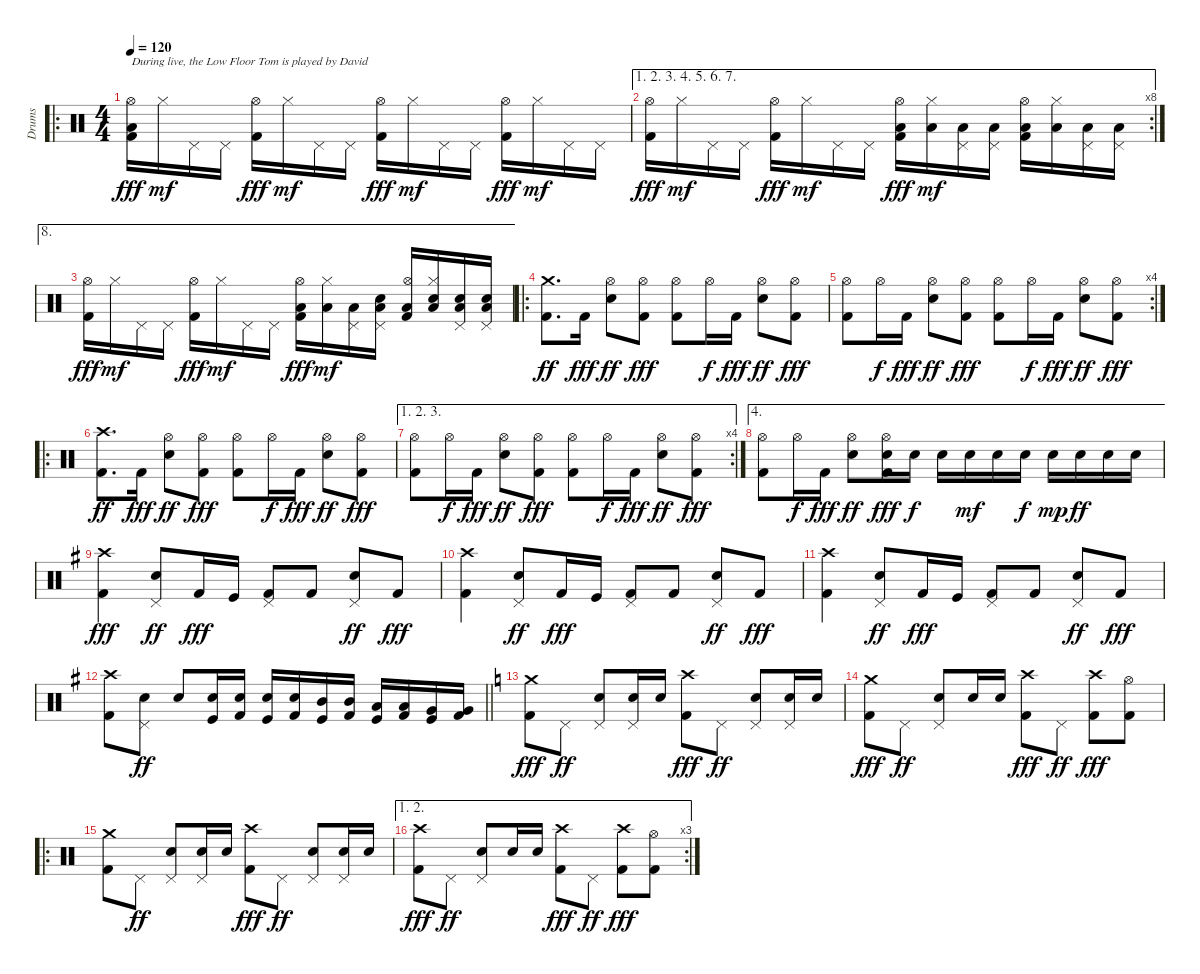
\track ("Drums" "Drums") {instrument percussion}
\staff {score}
\articulation defaults
\ro
\ts (4 4)
\tempo 120
\clef neutral
\ks c
("Low Floor Tom (hit)" "Hi-Hat (open)" "Kick (hit) 2").16{txt "During live, the Low Floor Tom is played by David " dy fff} "Hi-Hat (closed)".16{dy mf} "Pedal Hi-Hat (hit)".16 "Pedal Hi-Hat (hit)".16 ("Hi-Hat (open)" "Kick (hit) 2").16{dy fff} "Hi-Hat (closed)".16{dy mf} "Pedal Hi-Hat (hit)".16 "Pedal Hi-Hat (hit)".16 ("Hi-Hat (open)" "Kick (hit) 2").16{dy fff} "Hi-Hat (closed)".16{dy mf} "Pedal Hi-Hat (hit)".16 "Pedal Hi-Hat (hit)".16 ("Hi-Hat (open)" "Kick (hit) 2").16{dy fff} "Hi-Hat (closed)".16{dy mf} "Pedal Hi-Hat (hit)".16 "Pedal Hi-Hat (hit)".16 |
\ae (1 2 3 4 5 6 7)
\rc 8
("Hi-Hat (open)" "Kick (hit) 2").16{dy fff} "Hi-Hat (closed)".16{dy mf} "Pedal Hi-Hat (hit)".16 "Pedal Hi-Hat (hit)".16 ("Hi-Hat (open)" "Kick (hit) 2").16{dy fff} "Hi-Hat (closed)".16{dy mf} "Pedal Hi-Hat (hit)".16 "Pedal Hi-Hat (hit)".16 ("Low Floor Tom (hit)" "Hi-Hat (open)" "Kick (hit) 2").16{dy fff} ("Low Floor Tom (hit)" "Hi-Hat (closed)").16{dy mf} ("Low Floor Tom (hit)" "Pedal Hi-Hat (hit)").16 ("Low Floor Tom (hit)" "Pedal Hi-Hat (hit)").16 ("Low Floor Tom (hit)" "Hi-Hat (open)" "Kick (hit) 2").16 ("Low Floor Tom (hit)" "Hi-Hat (closed)").16 ("Low Floor Tom (hit)" "Pedal Hi-Hat (hit)").16 ("Low Floor Tom (hit)" "Pedal Hi-Hat (hit)").16 |
\ae 8
("Hi-Hat (open)" "Kick (hit) 2").16{dy fff} "Hi-Hat (closed)".16{dy mf} "Pedal Hi-Hat (hit)".16 "Pedal Hi-Hat (hit)".16 ("Hi-Hat (open)" "Kick (hit) 2").16{dy fff} "Hi-Hat (closed)".16{dy mf} "Pedal Hi-Hat (hit)".16 "Pedal Hi-Hat (hit)".16 ("Low Floor Tom (hit)" "Hi-Hat (open)" "Kick (hit) 2").16{dy fff} ("Low Floor Tom (hit)" "Hi-Hat (closed)").16{dy mf} ("Low Floor Tom (hit)" "Pedal Hi-Hat (hit)").16 ("Low Floor Tom (hit)" "Pedal Hi-Hat (hit)" "Snare (hit) 2").16 ("Low Floor Tom (hit)" "Hi-Hat (open)" "Kick (hit) 2").16 ("Low Floor Tom (hit)" "Hi-Hat (closed)" "Snare (hit) 2").16 ("Low Floor Tom (hit)" "Pedal Hi-Hat (hit)" "Snare (hit) 2").16 ("Low Floor Tom (hit)" "Pedal Hi-Hat (hit)" "Snare (hit) 2").16 |
\ro
("Crash medium (hit)" "Kick (hit) 2").8{d dy ff} "Kick (hit) 2".16{dy fff} ("Hi-Hat (open)" "Snare (hit) 2").8{dy ff} ("Hi-Hat (open)" "Kick (hit) 2").8{dy fff} ("Hi-Hat (open)" "Kick (hit) 2").8 "Hi-Hat (open)".16{dy f} "Kick (hit) 2".16{dy fff} ("Hi-Hat (open)" "Snare (hit) 2").8{dy ff} ("Hi-Hat (open)" "Kick (hit) 2").8{dy fff} |
\rc 4
("Hi-Hat (open)" "Kick (hit) 2").8 "Hi-Hat (open)".16{dy f} "Kick (hit) 2".16{dy fff} ("Hi-Hat (open)" "Snare (hit) 2").8{dy ff} ("Hi-Hat (open)" "Kick (hit) 2").8{dy fff} ("Hi-Hat (open)" "Kick (hit) 2").8 "Hi-Hat (open)".16{dy f} "Kick (hit) 2".16{dy fff} ("Hi-Hat (open)" "Snare (hit) 2").8{dy ff} ("Hi-Hat (open)" "Kick (hit) 2").8{dy fff} |
\ro
("Crash high (hit)" "Kick (hit) 2").8{d dy ff} "Kick (hit) 2".16{dy fff} ("Hi-Hat (open)" "Snare (hit) 2").8{dy ff} ("Hi-Hat (open)" "Kick (hit) 2").8{dy fff} ("Hi-Hat (open)" "Kick (hit) 2").8 "Hi-Hat (open)".16{dy f} "Kick (hit) 2".16{dy fff} ("Hi-Hat (open)" "Snare (hit) 2").8{dy ff} ("Hi-Hat (open)" "Kick (hit) 2").8{dy fff} |
\ae (1 2 3)
\rc 4
("Hi-Hat (open)" "Kick (hit) 2").8 "Hi-Hat (open)".16{dy f} "Kick (hit) 2".16{dy fff} ("Hi-Hat (open)" "Snare (hit) 2").8{dy ff} ("Hi-Hat (open)" "Kick (hit) 2").8{dy fff} ("Hi-Hat (open)" "Kick (hit) 2").8 "Hi-Hat (open)".16{dy f} "Kick (hit) 2".16{dy fff} ("Hi-Hat (open)" "Snare (hit) 2").8{dy ff} ("Hi-Hat (open)" "Kick (hit) 2").8{dy fff} |
\ae 4
("Hi-Hat (open)" "Kick (hit) 2").8 "Hi-Hat (open)".16{dy f} "Kick (hit) 2".16{dy fff} ("Hi-Hat (open)" "Snare (hit) 2").8{dy ff} ("Hi-Hat (open)" "Snare (hit) 2" "Kick (hit) 2").16{dy fff} "Snare (hit) 2".16{dy f} "Snare (hit) 2".16 "Snare (hit) 2".16{dy mf} "Snare (hit) 2".16 "Snare (hit) 2".16{dy f} "Snare (hit) 2".16{dy mp} "Snare (hit) 2".16{dy ff} "Snare (hit) 2".16 "Snare (hit) 2".16 |
\ks g
("Crash high (hit)" "Kick (hit) 2").4{dy fff} ("Pedal Hi-Hat (hit)" "Snare (hit) 2").8{dy ff} "Kick (hit) 2".16{dy fff} "Kick (hit)".16 ("Pedal Hi-Hat (hit)" "Kick (hit) 2").8 "Kick (hit) 2".8 ("Pedal Hi-Hat (hit)" "Snare (hit) 2").8{dy ff} "Kick (hit) 2".8{dy fff} |
("Crash high (hit)" "Kick (hit) 2").4 ("Pedal Hi-Hat (hit)" "Snare (hit) 2").8{dy ff} "Kick (hit) 2".16{dy fff} "Kick (hit)".16 ("Pedal Hi-Hat (hit)" "Kick (hit) 2").8 "Kick (hit) 2".8 ("Pedal Hi-Hat (hit)" "Snare (hit) 2").8{dy ff} "Kick (hit) 2".8{dy fff} |
("Crash high (hit)" "Kick (hit) 2").4 ("Pedal Hi-Hat (hit)" "Snare (hit) 2").8{dy ff} "Kick (hit) 2".16{dy fff} "Kick (hit)".16 ("Pedal Hi-Hat (hit)" "Kick (hit) 2").8 "Kick (hit) 2".8 ("Pedal Hi-Hat (hit)" "Snare (hit) 2").8{dy ff} "Kick (hit) 2".8{dy fff} |
\barLineRight lightlight
("Crash high (hit)" "Kick (hit) 2").8 ("Pedal Hi-Hat (hit)" "Snare (hit) 2").8{dy ff} "Snare (hit) 2".8 ("Snare (hit) 2" "Kick (hit)").16 ("Snare (hit) 2" "Kick (hit) 2").16 ("Snare (hit) 2" "Kick (hit)").16 ("Snare (hit) 2" "Kick (hit) 2").16 ("Mid Tom (hit)" "Kick (hit)").16 ("Mid Tom (hit)" "Kick (hit) 2").16 ("Low Tom (hit)" "Kick (hit)").16 ("Low Tom (hit)" "Kick (hit) 2").16 ("Very Low Tom (hit)" "Kick (hit)").16 ("Very Low Tom (hit)" "Kick (hit) 2").16 |
\ks c
("Crash medium (hit)" "Kick (hit) 2").8{dy fff} "Pedal Hi-Hat (hit)".8{dy ff} ("Pedal Hi-Hat (hit)" "Snare (hit) 2").8 ("Pedal Hi-Hat (hit)" "Snare (hit) 2").16 "Snare (hit) 2".16 ("Crash high (hit)" "Kick (hit) 2").8{dy fff} "Pedal Hi-Hat (hit)".8{dy ff} ("Pedal Hi-Hat (hit)" "Snare (hit) 2").8 ("Pedal Hi-Hat (hit)" "Snare (hit) 2").16 "Snare (hit) 2".16 |
("Crash medium (hit)" "Kick (hit) 2").8{dy fff} "Pedal Hi-Hat (hit)".8{dy ff} ("Pedal Hi-Hat (hit)" "Snare (hit) 2").8 "Snare (hit) 2".16 "Snare (hit) 2".16 ("Crash high (hit)" "Kick (hit) 2").8{dy fff} "Pedal Hi-Hat (hit)".8{dy ff} ("Crash high (hit)" "Kick (hit) 2").8{dy fff} ("Hi-Hat (open)" "Kick (hit) 2").8 |
\ro
("Crash medium (hit)" "Kick (hit) 2").8 "Pedal Hi-Hat (hit)".8{dy ff} ("Pedal Hi-Hat (hit)" "Snare (hit) 2").8 ("Pedal Hi-Hat (hit)" "Snare (hit) 2").16 "Snare (hit) 2".16 ("Crash high (hit)" "Kick (hit) 2").8{dy fff} "Pedal Hi-Hat (hit)".8{dy ff} ("Pedal Hi-Hat (hit)" "Snare (hit) 2").8 ("Pedal Hi-Hat (hit)" "Snare (hit) 2").16 "Snare (hit) 2".16 |
\ae (1 2)
\rc 3
("Crash high (hit)" "Kick (hit) 2").8{dy fff} "Pedal Hi-Hat (hit)".8{dy ff} ("Pedal Hi-Hat (hit)" "Snare (hit) 2").8 "Snare (hit) 2".16 "Snare (hit) 2".16 ("Crash high (hit)" "Kick (hit) 2").8{dy fff} "Pedal Hi-Hat (hit)".8{dy ff} ("Crash high (hit)" "Kick (hit) 2").8{dy fff} ("Hi-Hat (open)" "Kick (hit) 2").8
